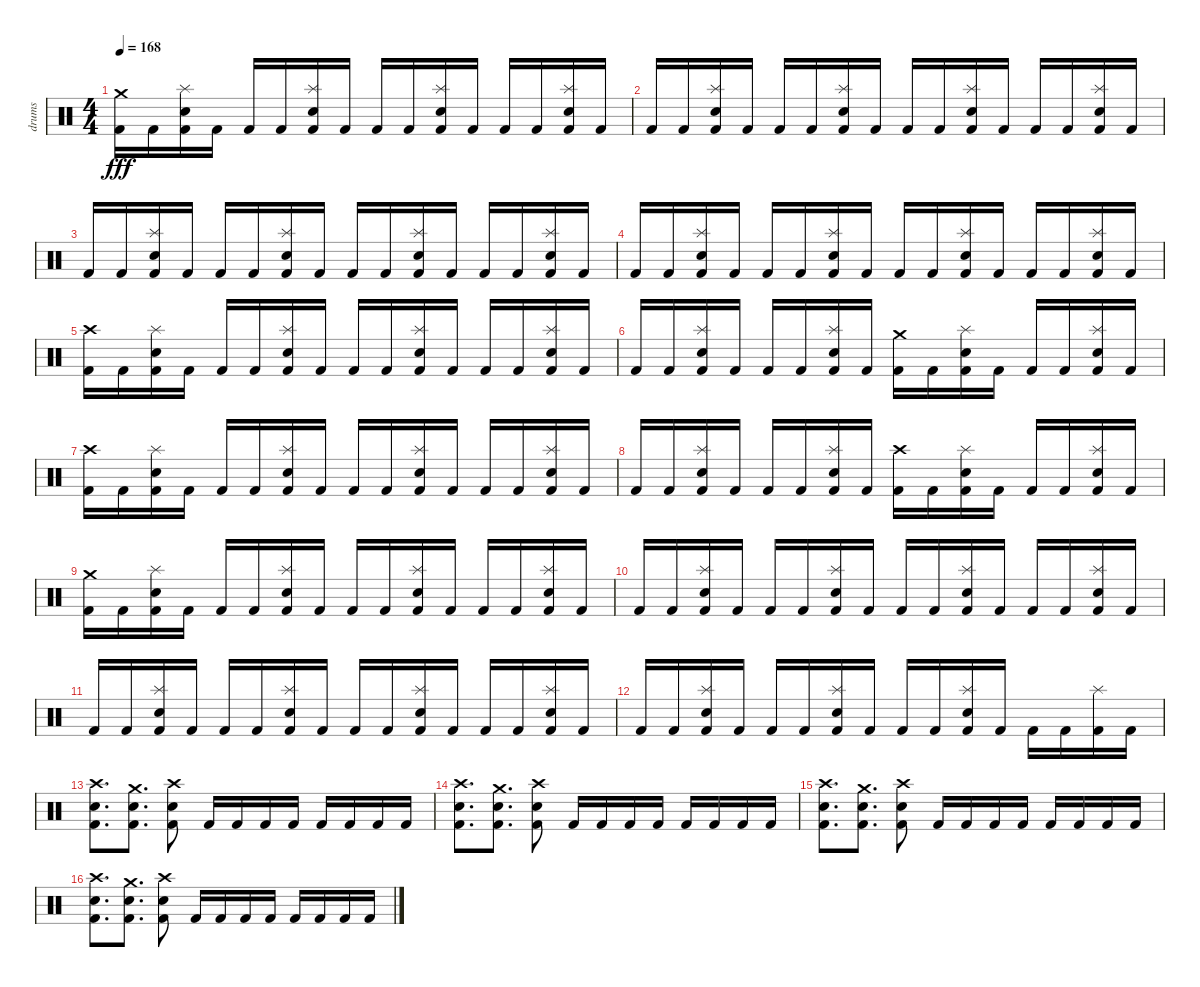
\track ("drums" "drums") {instrument percussion}
\staff {score}
\articulation defaults
\ts (4 4)
\tempo 168
\clef neutral
\ks c
("Crash medium (hit)" "Kick (hit) 2").16{dy fff} "Kick (hit) 2".16 ("Splash (hit)" "Snare (hit) 2" "Kick (hit) 2").16 "Kick (hit) 2".16 "Kick (hit) 2".16 "Kick (hit) 2".16 ("Splash (hit)" "Snare (hit) 2" "Kick (hit) 2").16 "Kick (hit) 2".16 "Kick (hit) 2".16 "Kick (hit) 2".16 ("Splash (hit)" "Snare (hit) 2" "Kick (hit) 2").16 "Kick (hit) 2".16 "Kick (hit) 2".16 "Kick (hit) 2".16 ("Splash (hit)" "Snare (hit) 2" "Kick (hit) 2").16 "Kick (hit) 2".16 |
"Kick (hit) 2".16 "Kick (hit) 2".16 ("Splash (hit)" "Snare (hit) 2" "Kick (hit) 2").16 "Kick (hit) 2".16 "Kick (hit) 2".16 "Kick (hit) 2".16 ("Splash (hit)" "Snare (hit) 2" "Kick (hit) 2").16 "Kick (hit) 2".16 "Kick (hit) 2".16 "Kick (hit) 2".16 ("Splash (hit)" "Snare (hit) 2" "Kick (hit) 2").16 "Kick (hit) 2".16 "Kick (hit) 2".16 "Kick (hit) 2".16 ("Splash (hit)" "Snare (hit) 2" "Kick (hit) 2").16 "Kick (hit) 2".16 |
"Kick (hit) 2".16 "Kick (hit) 2".16 ("Splash (hit)" "Snare (hit) 2" "Kick (hit) 2").16 "Kick (hit) 2".16 "Kick (hit) 2".16 "Kick (hit) 2".16 ("Splash (hit)" "Snare (hit) 2" "Kick (hit) 2").16 "Kick (hit) 2".16 "Kick (hit) 2".16 "Kick (hit) 2".16 ("Splash (hit)" "Snare (hit) 2" "Kick (hit) 2").16 "Kick (hit) 2".16 "Kick (hit) 2".16 "Kick (hit) 2".16 ("Splash (hit)" "Snare (hit) 2" "Kick (hit) 2").16 "Kick (hit) 2".16 |
"Kick (hit) 2".16 "Kick (hit) 2".16 ("Splash (hit)" "Snare (hit) 2" "Kick (hit) 2").16 "Kick (hit) 2".16 "Kick (hit) 2".16 "Kick (hit) 2".16 ("Splash (hit)" "Snare (hit) 2" "Kick (hit) 2").16 "Kick (hit) 2".16 "Kick (hit) 2".16 "Kick (hit) 2".16 ("Splash (hit)" "Snare (hit) 2" "Kick (hit) 2").16 "Kick (hit) 2".16 "Kick (hit) 2".16 "Kick (hit) 2".16 ("Splash (hit)" "Snare (hit) 2" "Kick (hit) 2").16 "Kick (hit) 2".16 |
("Crash high (hit)" "Kick (hit) 2").16 "Kick (hit) 2".16 ("Splash (hit)" "Snare (hit) 2" "Kick (hit) 2").16 "Kick (hit) 2".16 "Kick (hit) 2".16 "Kick (hit) 2".16 ("Splash (hit)" "Snare (hit) 2" "Kick (hit) 2").16 "Kick (hit) 2".16 "Kick (hit) 2".16 "Kick (hit) 2".16 ("Splash (hit)" "Snare (hit) 2" "Kick (hit) 2").16 "Kick (hit) 2".16 "Kick (hit) 2".16 "Kick (hit) 2".16 ("Splash (hit)" "Snare (hit) 2" "Kick (hit) 2").16 "Kick (hit) 2".16 |
"Kick (hit) 2".16 "Kick (hit) 2".16 ("Splash (hit)" "Snare (hit) 2" "Kick (hit) 2").16 "Kick (hit) 2".16 "Kick (hit) 2".16 "Kick (hit) 2".16 ("Splash (hit)" "Snare (hit) 2" "Kick (hit) 2").16 "Kick (hit) 2".16 ("Crash medium (hit)" "Kick (hit) 2").16 "Kick (hit) 2".16 ("Splash (hit)" "Snare (hit) 2" "Kick (hit) 2").16 "Kick (hit) 2".16 "Kick (hit) 2".16 "Kick (hit) 2".16 ("Splash (hit)" "Snare (hit) 2" "Kick (hit) 2").16 "Kick (hit) 2".16 |
("Crash high (hit)" "Kick (hit) 2").16 "Kick (hit) 2".16 ("Splash (hit)" "Snare (hit) 2" "Kick (hit) 2").16 "Kick (hit) 2".16 "Kick (hit) 2".16 "Kick (hit) 2".16 ("Splash (hit)" "Snare (hit) 2" "Kick (hit) 2").16 "Kick (hit) 2".16 "Kick (hit) 2".16 "Kick (hit) 2".16 ("Splash (hit)" "Snare (hit) 2" "Kick (hit) 2").16 "Kick (hit) 2".16 "Kick (hit) 2".16 "Kick (hit) 2".16 ("Splash (hit)" "Snare (hit) 2" "Kick (hit) 2").16 "Kick (hit) 2".16 |
"Kick (hit) 2".16 "Kick (hit) 2".16 ("Splash (hit)" "Snare (hit) 2" "Kick (hit) 2").16 "Kick (hit) 2".16 "Kick (hit) 2".16 "Kick (hit) 2".16 ("Splash (hit)" "Snare (hit) 2" "Kick (hit) 2").16 "Kick (hit) 2".16 ("Crash high (hit)" "Kick (hit) 2").16 "Kick (hit) 2".16 ("Splash (hit)" "Snare (hit) 2" "Kick (hit) 2").16 "Kick (hit) 2".16 "Kick (hit) 2".16 "Kick (hit) 2".16 ("Splash (hit)" "Snare (hit) 2" "Kick (hit) 2").16 "Kick (hit) 2".16 |
("Crash medium (hit)" "Kick (hit) 2").16 "Kick (hit) 2".16 ("Splash (hit)" "Snare (hit) 2" "Kick (hit) 2").16 "Kick (hit) 2".16 "Kick (hit) 2".16 "Kick (hit) 2".16 ("Splash (hit)" "Snare (hit) 2" "Kick (hit) 2").16 "Kick (hit) 2".16 "Kick (hit) 2".16 "Kick (hit) 2".16 ("Splash (hit)" "Snare (hit) 2" "Kick (hit) 2").16 "Kick (hit) 2".16 "Kick (hit) 2".16 "Kick (hit) 2".16 ("Splash (hit)" "Snare (hit) 2" "Kick (hit) 2").16 "Kick (hit) 2".16 |
"Kick (hit) 2".16 "Kick (hit) 2".16 ("Splash (hit)" "Snare (hit) 2" "Kick (hit) 2").16 "Kick (hit) 2".16 "Kick (hit) 2".16 "Kick (hit) 2".16 ("Splash (hit)" "Snare (hit) 2" "Kick (hit) 2").16 "Kick (hit) 2".16 "Kick (hit) 2".16 "Kick (hit) 2".16 ("Splash (hit)" "Snare (hit) 2" "Kick (hit) 2").16 "Kick (hit) 2".16 "Kick (hit) 2".16 "Kick (hit) 2".16 ("Splash (hit)" "Snare (hit) 2" "Kick (hit) 2").16 "Kick (hit) 2".16 |
"Kick (hit) 2".16 "Kick (hit) 2".16 ("Splash (hit)" "Snare (hit) 2" "Kick (hit) 2").16 "Kick (hit) 2".16 "Kick (hit) 2".16 "Kick (hit) 2".16 ("Splash (hit)" "Snare (hit) 2" "Kick (hit) 2").16 "Kick (hit) 2".16 "Kick (hit) 2".16 "Kick (hit) 2".16 ("Splash (hit)" "Snare (hit) 2" "Kick (hit) 2").16 "Kick (hit) 2".16 "Kick (hit) 2".16 "Kick (hit) 2".16 ("Splash (hit)" "Snare (hit) 2" "Kick (hit) 2").16 "Kick (hit) 2".16 |
"Kick (hit) 2".16 "Kick (hit) 2".16 ("Splash (hit)" "Snare (hit) 2" "Kick (hit) 2").16 "Kick (hit) 2".16 "Kick (hit) 2".16 "Kick (hit) 2".16 ("Splash (hit)" "Snare (hit) 2" "Kick (hit) 2").16 "Kick (hit) 2".16 "Kick (hit) 2".16 "Kick (hit) 2".16 ("Splash (hit)" "Snare (hit) 2" "Kick (hit) 2").16 "Kick (hit) 2".16 "Kick (hit) 2".16 "Kick (hit) 2".16 ("Splash (hit)" "Kick (hit) 2").16 "Kick (hit) 2".16 |
("Crash high (hit)" "Snare (hit) 2" "Kick (hit) 2").8{d} ("Crash medium (hit)" "Snare (hit) 2" "Kick (hit) 2").8{d} ("Crash high (hit)" "Snare (hit) 2" "Kick (hit) 2").8 "Kick (hit) 2".16 "Kick (hit) 2".16 "Kick (hit) 2".16 "Kick (hit) 2".16 "Kick (hit) 2".16 "Kick (hit) 2".16 "Kick (hit) 2".16 "Kick (hit) 2".16 |
("Crash high (hit)" "Snare (hit) 2" "Kick (hit) 2").8{d} ("Crash medium (hit)" "Snare (hit) 2" "Kick (hit) 2").8{d} ("Crash high (hit)" "Snare (hit) 2" "Kick (hit) 2").8 "Kick (hit) 2".16 "Kick (hit) 2".16 "Kick (hit) 2".16 "Kick (hit) 2".16 "Kick (hit) 2".16 "Kick (hit) 2".16 "Kick (hit) 2".16 "Kick (hit) 2".16 |
("Crash high (hit)" "Snare (hit) 2" "Kick (hit) 2").8{d} ("Crash medium (hit)" "Snare (hit) 2" "Kick (hit) 2").8{d} ("Crash high (hit)" "Snare (hit) 2" "Kick (hit) 2").8 "Kick (hit) 2".16 "Kick (hit) 2".16 "Kick (hit) 2".16 "Kick (hit) 2".16 "Kick (hit) 2".16 "Kick (hit) 2".16 "Kick (hit) 2".16 "Kick (hit) 2".16 |
("Crash high (hit)" "Snare (hit) 2" "Kick (hit) 2").8{d} ("Crash medium (hit)" "Snare (hit) 2" "Kick (hit) 2").8{d} ("Crash high (hit)" "Snare (hit) 2" "Kick (hit) 2").8 "Kick (hit) 2".16 "Kick (hit) 2".16 "Kick (hit) 2".16 "Kick (hit) 2".16 "Kick (hit) 2".16 "Kick (hit) 2".16 "Kick (hit) 2".16 "Kick (hit) 2".16
